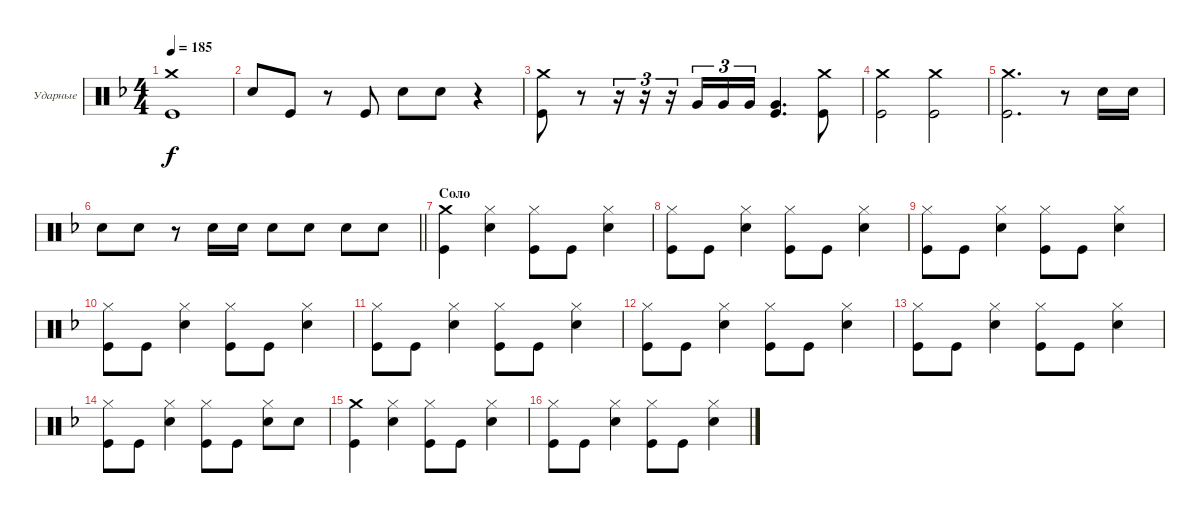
\bracketExtendMode groupsimilarinstruments
\firstSystemTrackNameOrientation horizontal
\otherSystemsTrackNameOrientation horizontal
\track ("Александр Львов" "Ударные") {instrument percussion}
\staff {score}
\articulation defaults
\ts (4 4)
\tempo 185
\clef neutral
\ks dminor
("Kick (hit)" "Crash medium (hit)").1{dy f} |
"Snare (hit) 2".8 "Kick (hit)".8 r.8 "Kick (hit)".8 "Snare (hit) 2".8 "Snare (hit) 2".8 r.4 |
("Kick (hit)" "Crash medium (hit)").8 r.8 r.16{tu (3 2)} r.16{tu (3 2)} r.16{tu (3 2)} "Very Low Tom (hit)".16{tu (3 2)} "Very Low Tom (hit)".16{tu (3 2)} "Very Low Tom (hit)".16{tu (3 2)} ("Kick (hit)" "Very Low Tom (hit)").4{d} ("Kick (hit)" "Crash medium (hit)").8 |
("Kick (hit)" "Crash medium (hit)").2 ("Kick (hit)" "Crash medium (hit)").2 |
("Kick (hit)" "Crash medium (hit)").2{d} r.8 "Snare (hit) 2".16 "Snare (hit) 2".16 |
\barLineRight lightlight "Snare (hit) 2".8 "Snare (hit) 2".8
r.8 "Snare (hit) 2".16 "Snare (hit) 2".16 "Snare (hit) 2".8 "Snare (hit) 2".8 "Snare (hit) 2".8 "Snare (hit) 2".8 |
\section ("" "Соло")
("Kick (hit)" "Crash medium (hit)").4 ("Snare (hit) 2" "Hi-Hat (closed)").4 ("Kick (hit)" "Hi-Hat (closed)").8 "Kick (hit)".8 ("Hi-Hat (closed)" "Snare (hit) 2").4 |
("Kick (hit)" "Hi-Hat (closed)").8 "Kick (hit)".8 ("Snare (hit) 2" "Hi-Hat (closed)").4 ("Kick (hit)" "Hi-Hat (closed)").8 "Kick (hit)".8 ("Hi-Hat (closed)" "Snare (hit) 2").4 |
("Kick (hit)" "Hi-Hat (closed)").8 "Kick (hit)".8 ("Snare (hit) 2" "Hi-Hat (closed)").4 ("Kick (hit)" "Hi-Hat (closed)").8 "Kick (hit)".8 ("Hi-Hat (closed)" "Snare (hit) 2").4 |
("Kick (hit)" "Hi-Hat (closed)").8 "Kick (hit)".8 ("Snare (hit) 2" "Hi-Hat (closed)").4 ("Kick (hit)" "Hi-Hat (closed)").8 "Kick (hit)".8 ("Hi-Hat (closed)" "Snare (hit) 2").4 |
("Kick (hit)" "Hi-Hat (closed)").8 "Kick (hit)".8 ("Snare (hit) 2" "Hi-Hat (closed)").4 ("Kick (hit)" "Hi-Hat (closed)").8 "Kick (hit)".8 ("Hi-Hat (closed)" "Snare (hit) 2").4 |
("Kick (hit)" "Hi-Hat (closed)").8 "Kick (hit)".8 ("Snare (hit) 2" "Hi-Hat (closed)").4 ("Kick (hit)" "Hi-Hat (closed)").8 "Kick (hit)".8 ("Hi-Hat (closed)" "Snare (hit) 2").4 |
("Kick (hit)" "Hi-Hat (closed)").8 "Kick (hit)".8 ("Snare (hit) 2" "Hi-Hat (closed)").4 ("Kick (hit)" "Hi-Hat (closed)").8 "Kick (hit)".8 ("Hi-Hat (closed)" "Snare (hit) 2").4 |
("Kick (hit)" "Hi-Hat (closed)").8 "Kick (hit)".8 ("Snare (hit) 2" "Hi-Hat (closed)").4 ("Kick (hit)" "Hi-Hat (closed)").8 "Kick (hit)".8 ("Hi-Hat (closed)" "Snare (hit) 2").8 "Snare (hit) 2".8 |
("Kick (hit)" "Crash medium (hit)").4 ("Snare (hit) 2" "Hi-Hat (closed)").4 ("Kick (hit)" "Hi-Hat (closed)").8 "Kick (hit)".8 ("Hi-Hat (closed)" "Snare (hit) 2").4 |
("Kick (hit)" "Hi-Hat (closed)").8 "Kick (hit)".8 ("Snare (hit) 2" "Hi-Hat (closed)").4 ("Kick (hit)" "Hi-Hat (closed)").8 "Kick (hit)".8 ("Hi-Hat (closed)" "Snare (hit) 2").4
